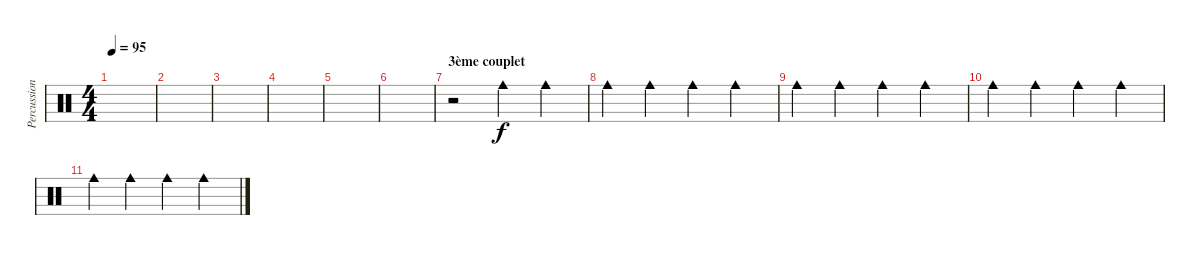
\track ("Percussions" "Percussion") {instrument percussion}
\staff {score}
\articulation defaults
\ts (4 4)
\tempo 95
\clef neutral
\ks c
|
|
|
|
|
|
\section ("" "3ème couplet")
r.2 "Cowbell medium (hit)".4 "Cowbell medium (hit)".4 |
"Cowbell medium (hit)".4 "Cowbell medium (hit)".4 "Cowbell medium (hit)".4 "Cowbell medium (hit)".4 |
"Cowbell medium (hit)".4 "Cowbell medium (hit)".4 "Cowbell medium (hit)".4 "Cowbell medium (hit)".4 |
"Cowbell medium (hit)".4 "Cowbell medium (hit)".4 "Cowbell medium (hit)".4 "Cowbell medium (hit)".4 |
"Cowbell medium (hit)".4 "Cowbell medium (hit)".4 "Cowbell medium (hit)".4 "Cowbell medium (hit)".4
